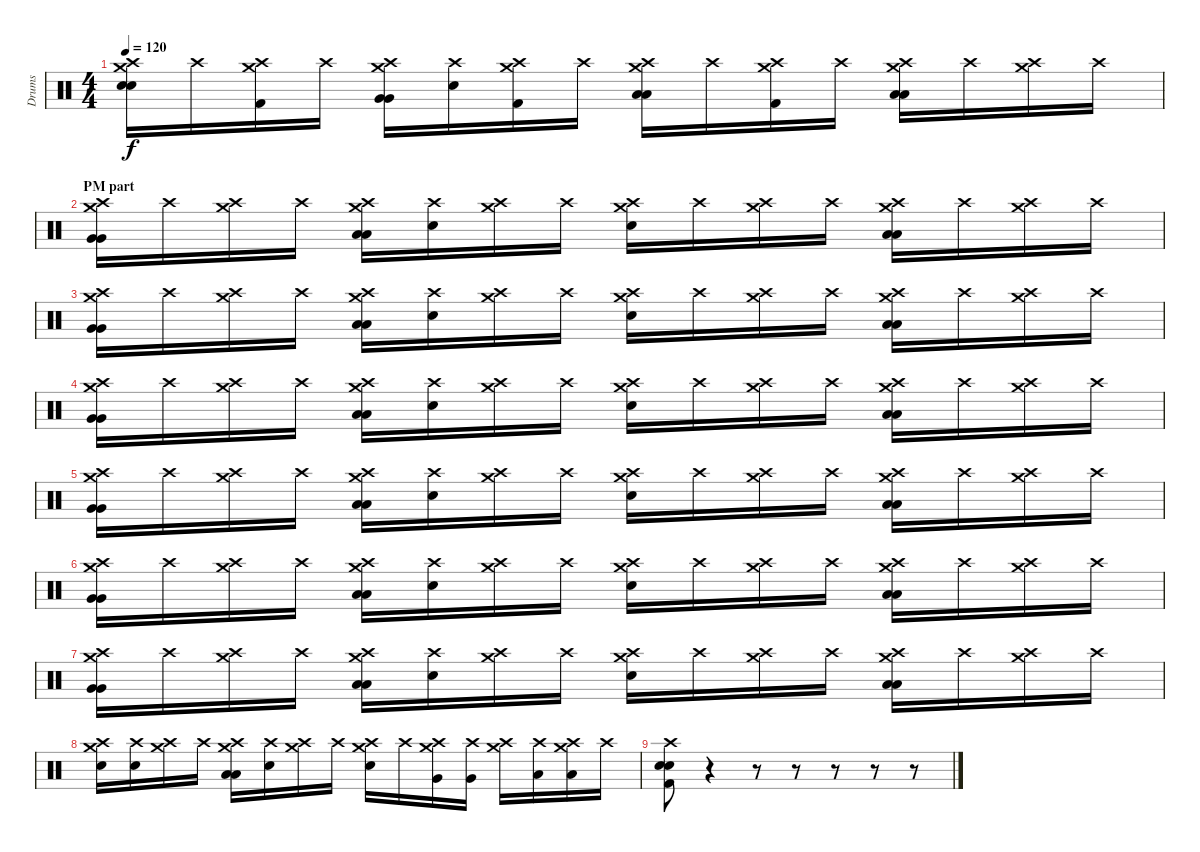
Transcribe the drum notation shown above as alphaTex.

\track ("Drums" "Drums") {instrument percussion}
\staff {score}
\articulation defaults
\ts (4 4)
\tempo 120
\clef neutral
\ks c
("Crash high (hit)" "Crash medium (hit)" "Electric Snare (hit)" "Snare (hit) 2").16{dy f} "Crash high (hit)"{x}.16 ("Crash high (hit)"{x} "Crash medium (hit)"{x} "Kick (hit) 2").16 "Crash high (hit)"{x}.16 ("Crash high (hit)" "Crash medium (hit)" "Very Low Tom (hit)" "Very Low Tom (hit)").16 ("Crash high (hit)"{x} "Snare (hit)"{x}).16 ("Crash high (hit)"{x} "Crash medium (hit)"{x} "Kick (hit) 2").16 "Crash high (hit)"{x}.16 ("Crash high (hit)" "Crash medium (hit)" "Low Tom (hit)" "Low Tom (hit)").16 "Crash high (hit)"{x}.16 ("Crash high (hit)"{x} "Crash medium (hit)"{x} "Kick (hit) 2").16 "Crash high (hit)"{x}.16 ("Crash high (hit)" "Crash medium (hit)" "Low Floor Tom (hit)" "Low Floor Tom (hit)").16 "Crash high (hit)"{x}.16 ("Crash high (hit)"{x} "Crash medium (hit)"{x}).16 "Crash high (hit)"{x}.16 |
\section ("" "PM part")
("Crash high (hit)" "Crash medium (hit)" "Very Low Tom (hit)" "Very Low Tom (hit)").16 "Crash high (hit)"{x}.16 ("Crash high (hit)"{x} "Crash medium (hit)"{x}).16 "Crash high (hit)"{x}.16 ("Crash high (hit)"{x} "Crash medium (hit)"{x} "Low Tom (hit)" "Low Tom (hit)").16 ("Crash high (hit)"{x} "Snare (hit)"{x}).16 ("Crash high (hit)"{x} "Crash medium (hit)"{x}).16 "Crash high (hit)"{x}.16 ("Crash high (hit)" "Crash medium (hit)" "Electric Snare (hit)").16 "Crash high (hit)"{x}.16 ("Crash high (hit)"{x} "Crash medium (hit)"{x}).16 "Crash high (hit)"{x}.16 ("Crash high (hit)"{x} "Crash medium (hit)"{x} "Low Floor Tom (hit)" "Low Floor Tom (hit)").16 "Crash high (hit)"{x}.16 ("Crash high (hit)"{x} "Crash medium (hit)"{x}).16 "Crash high (hit)"{x}.16 |
("Crash high (hit)" "Crash medium (hit)" "Very Low Tom (hit)" "Very Low Tom (hit)").16 "Crash high (hit)"{x}.16 ("Crash high (hit)"{x} "Crash medium (hit)"{x}).16 "Crash high (hit)"{x}.16 ("Crash high (hit)"{x} "Crash medium (hit)"{x} "Low Tom (hit)" "Low Tom (hit)").16 ("Crash high (hit)"{x} "Snare (hit)"{x}).16 ("Crash high (hit)"{x} "Crash medium (hit)"{x}).16 "Crash high (hit)"{x}.16 ("Crash high (hit)" "Crash medium (hit)" "Electric Snare (hit)").16 "Crash high (hit)"{x}.16 ("Crash high (hit)"{x} "Crash medium (hit)"{x}).16 "Crash high (hit)"{x}.16 ("Crash high (hit)"{x} "Crash medium (hit)"{x} "Low Floor Tom (hit)" "Low Floor Tom (hit)").16 "Crash high (hit)"{x}.16 ("Crash high (hit)"{x} "Crash medium (hit)"{x}).16 "Crash high (hit)"{x}.16 |
("Crash high (hit)" "Crash medium (hit)" "Very Low Tom (hit)" "Very Low Tom (hit)").16 "Crash high (hit)"{x}.16 ("Crash high (hit)"{x} "Crash medium (hit)"{x}).16 "Crash high (hit)"{x}.16 ("Crash high (hit)"{x} "Crash medium (hit)"{x} "Low Tom (hit)" "Low Tom (hit)").16 ("Crash high (hit)"{x} "Snare (hit)"{x}).16 ("Crash high (hit)"{x} "Crash medium (hit)"{x}).16 "Crash high (hit)"{x}.16 ("Crash high (hit)" "Crash medium (hit)" "Electric Snare (hit)").16 "Crash high (hit)"{x}.16 ("Crash high (hit)"{x} "Crash medium (hit)"{x}).16 "Crash high (hit)"{x}.16 ("Crash high (hit)"{x} "Crash medium (hit)"{x} "Low Floor Tom (hit)" "Low Floor Tom (hit)").16 "Crash high (hit)"{x}.16 ("Crash high (hit)"{x} "Crash medium (hit)"{x}).16 "Crash high (hit)"{x}.16 |
("Crash high (hit)" "Crash medium (hit)" "Very Low Tom (hit)" "Very Low Tom (hit)").16 "Crash high (hit)"{x}.16 ("Crash high (hit)"{x} "Crash medium (hit)"{x}).16 "Crash high (hit)"{x}.16 ("Crash high (hit)"{x} "Crash medium (hit)"{x} "Low Tom (hit)" "Low Tom (hit)").16 ("Crash high (hit)"{x} "Snare (hit)"{x}).16 ("Crash high (hit)"{x} "Crash medium (hit)"{x}).16 "Crash high (hit)"{x}.16 ("Crash high (hit)" "Crash medium (hit)" "Electric Snare (hit)").16 "Crash high (hit)"{x}.16 ("Crash high (hit)"{x} "Crash medium (hit)"{x}).16 "Crash high (hit)"{x}.16 ("Crash high (hit)"{x} "Crash medium (hit)"{x} "Low Floor Tom (hit)" "Low Floor Tom (hit)").16 "Crash high (hit)"{x}.16 ("Crash high (hit)"{x} "Crash medium (hit)"{x}).16 "Crash high (hit)"{x}.16 |
("Crash high (hit)" "Crash medium (hit)" "Very Low Tom (hit)" "Very Low Tom (hit)").16 "Crash high (hit)"{x}.16 ("Crash high (hit)"{x} "Crash medium (hit)"{x}).16 "Crash high (hit)"{x}.16 ("Crash high (hit)"{x} "Crash medium (hit)"{x} "Low Tom (hit)" "Low Tom (hit)").16 ("Crash high (hit)"{x} "Snare (hit)"{x}).16 ("Crash high (hit)"{x} "Crash medium (hit)"{x}).16 "Crash high (hit)"{x}.16 ("Crash high (hit)" "Crash medium (hit)" "Electric Snare (hit)").16 "Crash high (hit)"{x}.16 ("Crash high (hit)"{x} "Crash medium (hit)"{x}).16 "Crash high (hit)"{x}.16 ("Crash high (hit)"{x} "Crash medium (hit)"{x} "Low Floor Tom (hit)" "Low Floor Tom (hit)").16 "Crash high (hit)"{x}.16 ("Crash high (hit)"{x} "Crash medium (hit)"{x}).16 "Crash high (hit)"{x}.16 |
("Crash high (hit)" "Crash medium (hit)" "Very Low Tom (hit)" "Very Low Tom (hit)").16 "Crash high (hit)"{x}.16 ("Crash high (hit)"{x} "Crash medium (hit)"{x}).16 "Crash high (hit)"{x}.16 ("Crash high (hit)"{x} "Crash medium (hit)"{x} "Low Tom (hit)" "Low Tom (hit)").16 ("Crash high (hit)"{x} "Snare (hit)"{x}).16 ("Crash high (hit)"{x} "Crash medium (hit)"{x}).16 "Crash high (hit)"{x}.16 ("Crash high (hit)" "Crash medium (hit)" "Electric Snare (hit)").16 "Crash high (hit)"{x}.16 ("Crash high (hit)"{x} "Crash medium (hit)"{x}).16 "Crash high (hit)"{x}.16 ("Crash high (hit)"{x} "Crash medium (hit)"{x} "Low Floor Tom (hit)" "Low Floor Tom (hit)").16 "Crash high (hit)"{x}.16 ("Crash high (hit)"{x} "Crash medium (hit)"{x}).16 "Crash high (hit)"{x}.16 |
("Crash high (hit)" "Crash medium (hit)" "Electric Snare (hit)").16 ("Crash high (hit)"{x} "Electric Snare (hit)").16 ("Crash high (hit)"{x} "Crash medium (hit)"{x}).16 "Crash high (hit)"{x}.16 ("Crash high (hit)"{x} "Crash medium (hit)"{x} "Low Tom (hit)" "Low Tom (hit)").16 ("Crash high (hit)"{x} "Snare (hit)"{x}).16 ("Crash high (hit)"{x} "Crash medium (hit)"{x}).16 "Crash high (hit)"{x}.16 ("Crash high (hit)" "Crash medium (hit)" "Electric Snare (hit)").16 "Crash high (hit)"{x}.16 ("Crash high (hit)"{x} "Crash medium (hit)"{x} "Very Low Tom (hit)").16 ("Crash high (hit)"{x} "Very Low Tom (hit)").16 ("Crash high (hit)"{x} "Crash medium (hit)"{x}).16 ("Crash high (hit)"{x} "Low Floor Tom (hit)").16 ("Crash high (hit)"{x} "Crash medium (hit)"{x} "Low Floor Tom (hit)").16 "Crash high (hit)"{x}.16 |
("Crash high (hit)" "Snare (hit) 2" "Electric Snare (hit)" "Kick (hit) 2").8 r.4 r.8 r.8 r.8 r.8 r.8
